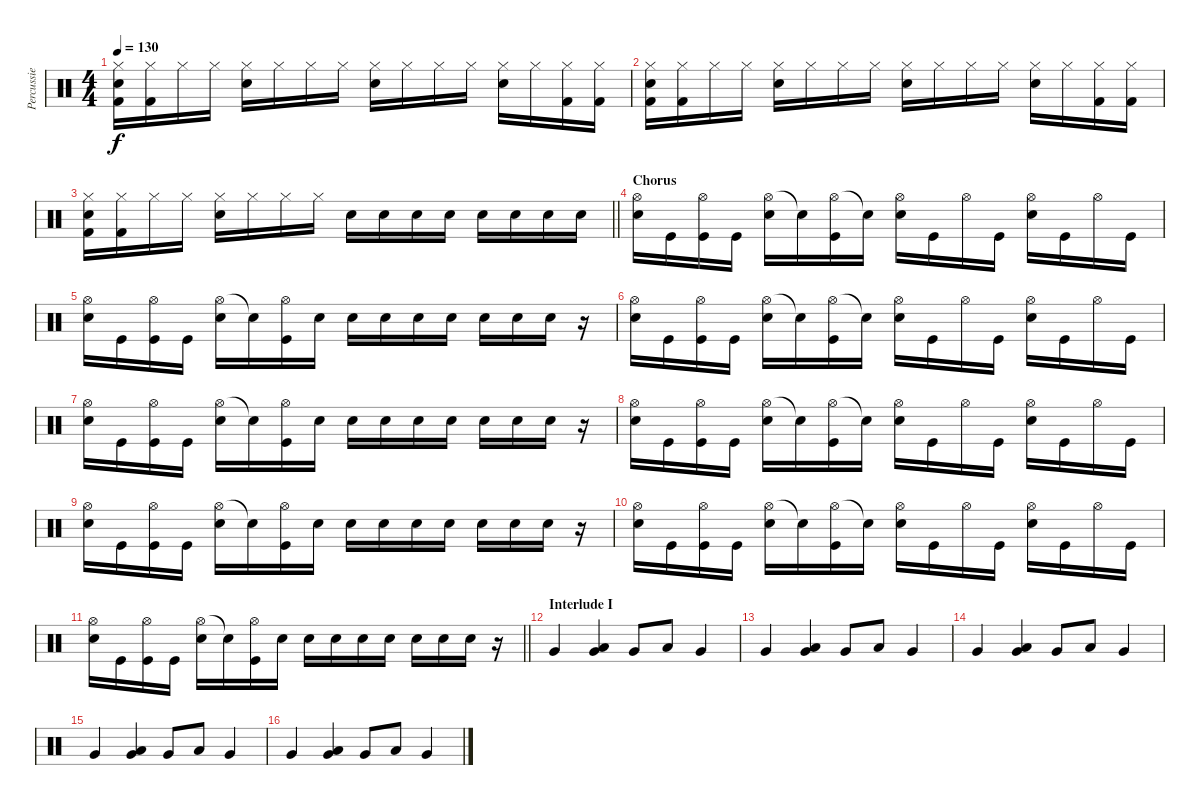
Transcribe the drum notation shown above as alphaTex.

\track ("Percussie" "Percussie") {instrument percussion}
\staff {score}
\articulation defaults
\ts (4 4)
\tempo 130
\clef neutral
\ks c
("Hi-Hat (closed)" "Electric Snare (hit)" "Kick (hit) 2").16{dy f} ("Hi-Hat (closed)" "Kick (hit) 2").16 "Hi-Hat (closed)".16 "Hi-Hat (closed)".16 ("Hi-Hat (closed)" "Electric Snare (hit)").16 "Hi-Hat (closed)".16 "Hi-Hat (closed)".16 "Hi-Hat (closed)".16 ("Hi-Hat (closed)" "Electric Snare (hit)").16 "Hi-Hat (closed)".16 "Hi-Hat (closed)".16 "Hi-Hat (closed)".16 ("Hi-Hat (closed)" "Electric Snare (hit)").16 "Hi-Hat (closed)".16 ("Hi-Hat (closed)" "Kick (hit) 2").16 ("Hi-Hat (closed)" "Kick (hit) 2").16 |
("Hi-Hat (closed)" "Electric Snare (hit)" "Kick (hit) 2").16 ("Hi-Hat (closed)" "Kick (hit) 2").16 "Hi-Hat (closed)".16 "Hi-Hat (closed)".16 ("Hi-Hat (closed)" "Electric Snare (hit)").16 "Hi-Hat (closed)".16 "Hi-Hat (closed)".16 "Hi-Hat (closed)".16 ("Hi-Hat (closed)" "Electric Snare (hit)").16 "Hi-Hat (closed)".16 "Hi-Hat (closed)".16 "Hi-Hat (closed)".16 ("Hi-Hat (closed)" "Electric Snare (hit)").16 "Hi-Hat (closed)".16 ("Hi-Hat (closed)" "Kick (hit) 2").16 ("Hi-Hat (closed)" "Kick (hit) 2").16 |
\barLineRight lightlight
("Hi-Hat (closed)" "Electric Snare (hit)" "Kick (hit) 2").16 ("Hi-Hat (closed)" "Kick (hit) 2").16 "Hi-Hat (closed)".16 "Hi-Hat (closed)".16 ("Hi-Hat (closed)" "Electric Snare (hit)").16 "Hi-Hat (closed)".16 "Hi-Hat (closed)".16 "Hi-Hat (closed)".16 "Electric Snare (hit)".16 "Electric Snare (hit)".16 "Electric Snare (hit)".16 "Electric Snare (hit)".16 "Electric Snare (hit)".16 "Electric Snare (hit)".16 "Electric Snare (hit)".16 "Electric Snare (hit)".16 |
\section ("" "Chorus")
("Hi-Hat (open)" "Snare (hit) 2").16 "Kick (hit)".16 ("Hi-Hat (open)" "Kick (hit)").16 "Kick (hit)".16 ("Hi-Hat (open)" "Snare (hit) 2").16 "Snare (hit)"{t}.16 ("Hi-Hat (open)" "Kick (hit)").16 "Snare (hit)"{t}.16 ("Hi-Hat (open)" "Snare (hit) 2").16 "Kick (hit)".16 "Hi-Hat (open)".16 "Kick (hit)".16 ("Hi-Hat (open)" "Snare (hit) 2").16 "Kick (hit)".16 "Hi-Hat (open)".16 "Kick (hit)".16 |
("Hi-Hat (open)" "Snare (hit) 2").16 "Kick (hit)".16 ("Hi-Hat (open)" "Kick (hit)").16 "Kick (hit)".16 ("Hi-Hat (open)" "Snare (hit) 2").16 "Snare (hit)"{t}.16 ("Hi-Hat (open)" "Kick (hit)").16 "Snare (hit) 2".16 "Snare (hit) 2".16 "Snare (hit) 2".16 "Snare (hit) 2".16 "Snare (hit) 2".16 "Snare (hit) 2".16 "Snare (hit) 2".16 "Snare (hit) 2".16 r.16 |
("Hi-Hat (open)" "Snare (hit) 2").16 "Kick (hit)".16 ("Hi-Hat (open)" "Kick (hit)").16 "Kick (hit)".16 ("Hi-Hat (open)" "Snare (hit) 2").16 "Snare (hit)"{t}.16 ("Hi-Hat (open)" "Kick (hit)").16 "Snare (hit)"{t}.16 ("Hi-Hat (open)" "Snare (hit) 2").16 "Kick (hit)".16 "Hi-Hat (open)".16 "Kick (hit)".16 ("Hi-Hat (open)" "Snare (hit) 2").16 "Kick (hit)".16 "Hi-Hat (open)".16 "Kick (hit)".16 |
("Hi-Hat (open)" "Snare (hit) 2").16 "Kick (hit)".16 ("Hi-Hat (open)" "Kick (hit)").16 "Kick (hit)".16 ("Hi-Hat (open)" "Snare (hit) 2").16 "Snare (hit)"{t}.16 ("Hi-Hat (open)" "Kick (hit)").16 "Snare (hit) 2".16 "Snare (hit) 2".16 "Snare (hit) 2".16 "Snare (hit) 2".16 "Snare (hit) 2".16 "Snare (hit) 2".16 "Snare (hit) 2".16 "Snare (hit) 2".16 r.16 |
("Hi-Hat (open)" "Snare (hit) 2").16 "Kick (hit)".16 ("Hi-Hat (open)" "Kick (hit)").16 "Kick (hit)".16 ("Hi-Hat (open)" "Snare (hit) 2").16 "Snare (hit)"{t}.16 ("Hi-Hat (open)" "Kick (hit)").16 "Snare (hit)"{t}.16 ("Hi-Hat (open)" "Snare (hit) 2").16 "Kick (hit)".16 "Hi-Hat (open)".16 "Kick (hit)".16 ("Hi-Hat (open)" "Snare (hit) 2").16 "Kick (hit)".16 "Hi-Hat (open)".16 "Kick (hit)".16 |
("Hi-Hat (open)" "Snare (hit) 2").16 "Kick (hit)".16 ("Hi-Hat (open)" "Kick (hit)").16 "Kick (hit)".16 ("Hi-Hat (open)" "Snare (hit) 2").16 "Snare (hit)"{t}.16 ("Hi-Hat (open)" "Kick (hit)").16 "Snare (hit) 2".16 "Snare (hit) 2".16 "Snare (hit) 2".16 "Snare (hit) 2".16 "Snare (hit) 2".16 "Snare (hit) 2".16 "Snare (hit) 2".16 "Snare (hit) 2".16 r.16 |
("Hi-Hat (open)" "Snare (hit) 2").16 "Kick (hit)".16 ("Hi-Hat (open)" "Kick (hit)").16 "Kick (hit)".16 ("Hi-Hat (open)" "Snare (hit) 2").16 "Snare (hit)"{t}.16 ("Hi-Hat (open)" "Kick (hit)").16 "Snare (hit)"{t}.16 ("Hi-Hat (open)" "Snare (hit) 2").16 "Kick (hit)".16 "Hi-Hat (open)".16 "Kick (hit)".16 ("Hi-Hat (open)" "Snare (hit) 2").16 "Kick (hit)".16 "Hi-Hat (open)".16 "Kick (hit)".16 |
\barLineRight lightlight
("Hi-Hat (open)" "Snare (hit) 2").16 "Kick (hit)".16 ("Hi-Hat (open)" "Kick (hit)").16 "Kick (hit)".16 ("Hi-Hat (open)" "Snare (hit) 2").16 "Snare (hit)"{t}.16 ("Hi-Hat (open)" "Kick (hit)").16 "Snare (hit) 2".16 "Snare (hit) 2".16 "Snare (hit) 2".16 "Snare (hit) 2".16 "Snare (hit) 2".16 "Snare (hit) 2".16 "Snare (hit) 2".16 "Snare (hit) 2".16 r.16 |
\section ("" "Interlude I")
"Very Low Tom (hit)".4 ("Very Low Tom (hit)" "Low Floor Tom (hit)").4 "Very Low Tom (hit)".8 "Low Floor Tom (hit)".8 "Very Low Tom (hit)".4 |
"Very Low Tom (hit)".4 ("Very Low Tom (hit)" "Low Floor Tom (hit)").4 "Very Low Tom (hit)".8 "Low Floor Tom (hit)".8 "Very Low Tom (hit)".4 |
"Very Low Tom (hit)".4 ("Very Low Tom (hit)" "Low Floor Tom (hit)").4 "Very Low Tom (hit)".8 "Low Floor Tom (hit)".8 "Very Low Tom (hit)".4 |
"Very Low Tom (hit)".4 ("Very Low Tom (hit)" "Low Floor Tom (hit)").4 "Very Low Tom (hit)".8 "Low Floor Tom (hit)".8 "Very Low Tom (hit)".4 |
"Very Low Tom (hit)".4 ("Very Low Tom (hit)" "Low Floor Tom (hit)").4 "Very Low Tom (hit)".8 "Low Floor Tom (hit)".8 "Very Low Tom (hit)".4
